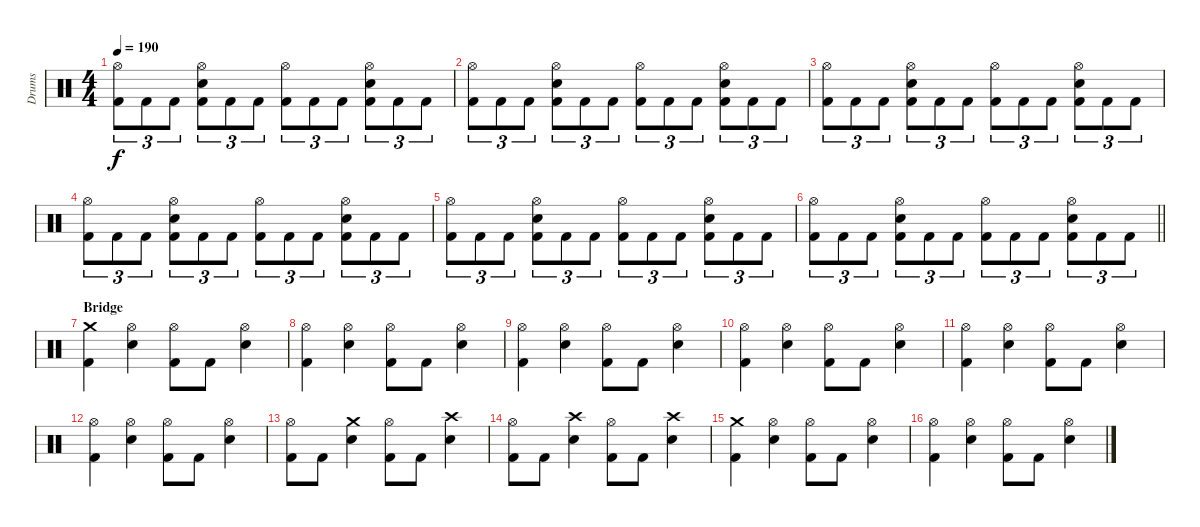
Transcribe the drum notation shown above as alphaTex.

\track ("Drums" "Drums") {instrument percussion}
\staff {score}
\articulation defaults
\ts (4 4)
\tempo 190
\clef neutral
\ks c
("Hi-Hat (open)" "Kick (hit) 2").8{tu (3 2) dy f} "Kick (hit) 2".8{tu (3 2)} "Kick (hit) 2".8{tu (3 2)} ("Hi-Hat (open)" "Snare (hit) 2" "Kick (hit) 2").8{tu (3 2)} "Kick (hit) 2".8{tu (3 2)} "Kick (hit) 2".8{tu (3 2)} ("Hi-Hat (open)" "Kick (hit) 2").8{tu (3 2)} "Kick (hit) 2".8{tu (3 2)} "Kick (hit) 2".8{tu (3 2)} ("Hi-Hat (open)" "Snare (hit) 2" "Kick (hit) 2").8{tu (3 2)} "Kick (hit) 2".8{tu (3 2)} "Kick (hit) 2".8{tu (3 2)} |
("Hi-Hat (open)" "Kick (hit) 2").8{tu (3 2)} "Kick (hit) 2".8{tu (3 2)} "Kick (hit) 2".8{tu (3 2)} ("Hi-Hat (open)" "Snare (hit) 2" "Kick (hit) 2").8{tu (3 2)} "Kick (hit) 2".8{tu (3 2)} "Kick (hit) 2".8{tu (3 2)} ("Hi-Hat (open)" "Kick (hit) 2").8{tu (3 2)} "Kick (hit) 2".8{tu (3 2)} "Kick (hit) 2".8{tu (3 2)} ("Hi-Hat (open)" "Snare (hit) 2" "Kick (hit) 2").8{tu (3 2)} "Kick (hit) 2".8{tu (3 2)} "Kick (hit) 2".8{tu (3 2)} |
("Hi-Hat (open)" "Kick (hit) 2").8{tu (3 2)} "Kick (hit) 2".8{tu (3 2)} "Kick (hit) 2".8{tu (3 2)} ("Hi-Hat (open)" "Snare (hit) 2" "Kick (hit) 2").8{tu (3 2)} "Kick (hit) 2".8{tu (3 2)} "Kick (hit) 2".8{tu (3 2)} ("Hi-Hat (open)" "Kick (hit) 2").8{tu (3 2)} "Kick (hit) 2".8{tu (3 2)} "Kick (hit) 2".8{tu (3 2)} ("Hi-Hat (open)" "Snare (hit) 2" "Kick (hit) 2").8{tu (3 2)} "Kick (hit) 2".8{tu (3 2)} "Kick (hit) 2".8{tu (3 2)} |
("Hi-Hat (open)" "Kick (hit) 2").8{tu (3 2)} "Kick (hit) 2".8{tu (3 2)} "Kick (hit) 2".8{tu (3 2)} ("Hi-Hat (open)" "Snare (hit) 2" "Kick (hit) 2").8{tu (3 2)} "Kick (hit) 2".8{tu (3 2)} "Kick (hit) 2".8{tu (3 2)} ("Hi-Hat (open)" "Kick (hit) 2").8{tu (3 2)} "Kick (hit) 2".8{tu (3 2)} "Kick (hit) 2".8{tu (3 2)} ("Hi-Hat (open)" "Snare (hit) 2" "Kick (hit) 2").8{tu (3 2)} "Kick (hit) 2".8{tu (3 2)} "Kick (hit) 2".8{tu (3 2)} |
("Hi-Hat (open)" "Kick (hit) 2").8{tu (3 2)} "Kick (hit) 2".8{tu (3 2)} "Kick (hit) 2".8{tu (3 2)} ("Hi-Hat (open)" "Snare (hit) 2" "Kick (hit) 2").8{tu (3 2)} "Kick (hit) 2".8{tu (3 2)} "Kick (hit) 2".8{tu (3 2)} ("Hi-Hat (open)" "Kick (hit) 2").8{tu (3 2)} "Kick (hit) 2".8{tu (3 2)} "Kick (hit) 2".8{tu (3 2)} ("Hi-Hat (open)" "Snare (hit) 2" "Kick (hit) 2").8{tu (3 2)} "Kick (hit) 2".8{tu (3 2)} "Kick (hit) 2".8{tu (3 2)} |
\barLineRight lightlight
("Hi-Hat (open)" "Kick (hit) 2").8{tu (3 2)} "Kick (hit) 2".8{tu (3 2)} "Kick (hit) 2".8{tu (3 2)} ("Hi-Hat (open)" "Snare (hit) 2" "Kick (hit) 2").8{tu (3 2)} "Kick (hit) 2".8{tu (3 2)} "Kick (hit) 2".8{tu (3 2)} ("Hi-Hat (open)" "Kick (hit) 2").8{tu (3 2)} "Kick (hit) 2".8{tu (3 2)} "Kick (hit) 2".8{tu (3 2)} ("Hi-Hat (open)" "Snare (hit) 2" "Kick (hit) 2").8{tu (3 2)} "Kick (hit) 2".8{tu (3 2)} "Kick (hit) 2".8{tu (3 2)} |
\section ("" "Bridge")
("Crash medium (hit)" "Kick (hit) 2").4 ("Hi-Hat (open)" "Snare (hit) 2").4 ("Hi-Hat (open)" "Kick (hit) 2").8 "Kick (hit) 2".8 ("Hi-Hat (open)" "Snare (hit) 2").4 |
("Hi-Hat (open)" "Kick (hit) 2").4 ("Hi-Hat (open)" "Snare (hit) 2").4 ("Hi-Hat (open)" "Kick (hit) 2").8 "Kick (hit) 2".8 ("Hi-Hat (open)" "Snare (hit) 2").4 |
("Hi-Hat (open)" "Kick (hit) 2").4 ("Hi-Hat (open)" "Snare (hit) 2").4 ("Hi-Hat (open)" "Kick (hit) 2").8 "Kick (hit) 2".8 ("Hi-Hat (open)" "Snare (hit) 2").4 |
("Hi-Hat (open)" "Kick (hit) 2").4 ("Hi-Hat (open)" "Snare (hit) 2").4 ("Hi-Hat (open)" "Kick (hit) 2").8 "Kick (hit) 2".8 ("Hi-Hat (open)" "Snare (hit) 2").4 |
("Hi-Hat (open)" "Kick (hit) 2").4 ("Hi-Hat (open)" "Snare (hit) 2").4 ("Hi-Hat (open)" "Kick (hit) 2").8 "Kick (hit) 2".8 ("Hi-Hat (open)" "Snare (hit) 2").4 |
("Hi-Hat (open)" "Kick (hit) 2").4 ("Hi-Hat (open)" "Snare (hit) 2").4 ("Hi-Hat (open)" "Kick (hit) 2").8 "Kick (hit) 2".8 ("Hi-Hat (open)" "Snare (hit) 2").4 |
("Hi-Hat (open)" "Kick (hit) 2").8 "Kick (hit) 2".8 ("Crash medium (hit)" "Snare (hit) 2").4 ("Hi-Hat (open)" "Kick (hit) 2").8 "Kick (hit) 2".8 ("Crash high (hit)" "Snare (hit) 2").4 |
("Hi-Hat (open)" "Kick (hit) 2").8 "Kick (hit) 2".8 ("Crash high (hit)" "Snare (hit) 2").4 ("Hi-Hat (open)" "Kick (hit) 2").8 "Kick (hit) 2".8 ("Crash high (hit)" "Snare (hit) 2").4 |
("Crash medium (hit)" "Kick (hit) 2").4 ("Hi-Hat (open)" "Snare (hit) 2").4 ("Hi-Hat (open)" "Kick (hit) 2").8 "Kick (hit) 2".8 ("Hi-Hat (open)" "Snare (hit) 2").4 |
("Hi-Hat (open)" "Kick (hit) 2").4 ("Hi-Hat (open)" "Snare (hit) 2").4 ("Hi-Hat (open)" "Kick (hit) 2").8 "Kick (hit) 2".8 ("Hi-Hat (open)" "Snare (hit) 2").4
